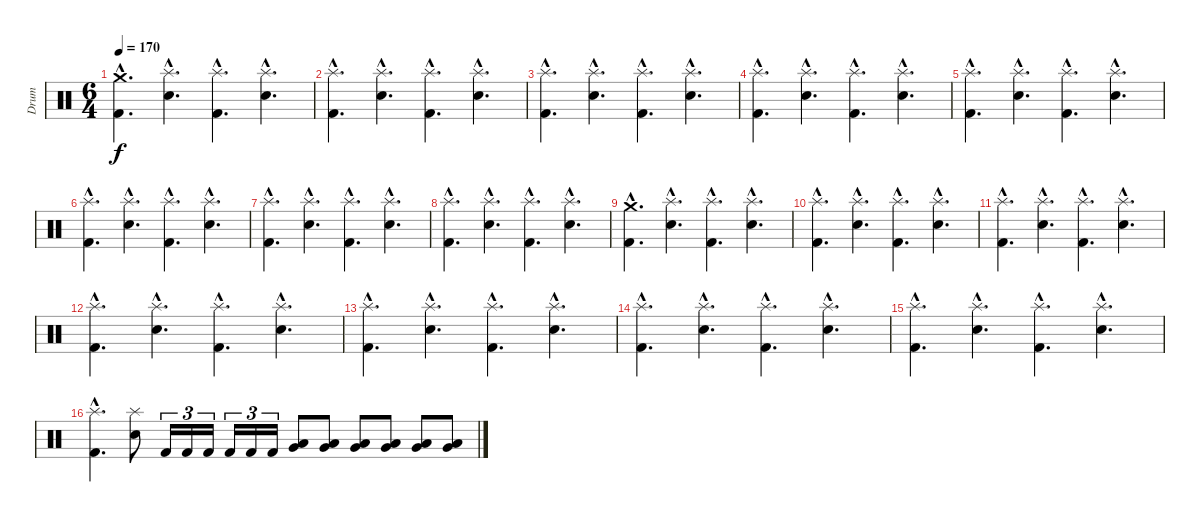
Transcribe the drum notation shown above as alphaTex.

\track ("Drum" "Drum") {instrument percussion}
\staff {score}
\articulation defaults
\ts (6 4)
\tempo 170
\clef neutral
\ks c
("Crash medium (hit)"{hac} "Kick (hit) 2"{hac}).4{d dy f} ("Splash (hit)"{hac} "Electric Snare (hit)"{hac}).4{d} ("Splash (hit)"{hac} "Kick (hit) 2"{hac}).4{d} ("Splash (hit)"{hac} "Electric Snare (hit)"{hac}).4{d} |
("Splash (hit)"{hac} "Kick (hit) 2"{hac}).4{d} ("Splash (hit)"{hac} "Electric Snare (hit)"{hac}).4{d} ("Splash (hit)"{hac} "Kick (hit) 2"{hac}).4{d} ("Splash (hit)"{hac} "Electric Snare (hit)"{hac}).4{d} |
("Splash (hit)"{hac} "Kick (hit) 2"{hac}).4{d} ("Splash (hit)"{hac} "Electric Snare (hit)"{hac}).4{d} ("Splash (hit)"{hac} "Kick (hit) 2"{hac}).4{d} ("Splash (hit)"{hac} "Electric Snare (hit)"{hac}).4{d} |
("Splash (hit)"{hac} "Kick (hit) 2"{hac}).4{d} ("Splash (hit)"{hac} "Electric Snare (hit)"{hac}).4{d} ("Splash (hit)"{hac} "Kick (hit) 2"{hac}).4{d} ("Splash (hit)"{hac} "Electric Snare (hit)"{hac}).4{d} |
("Splash (hit)"{hac} "Kick (hit) 2"{hac}).4{d} ("Splash (hit)"{hac} "Electric Snare (hit)"{hac}).4{d} ("Splash (hit)"{hac} "Kick (hit) 2"{hac}).4{d} ("Splash (hit)"{hac} "Electric Snare (hit)"{hac}).4{d} |
("Splash (hit)"{hac} "Kick (hit) 2"{hac}).4{d} ("Splash (hit)"{hac} "Electric Snare (hit)"{hac}).4{d} ("Splash (hit)"{hac} "Kick (hit) 2"{hac}).4{d} ("Splash (hit)"{hac} "Electric Snare (hit)"{hac}).4{d} |
("Splash (hit)"{hac} "Kick (hit) 2"{hac}).4{d} ("Splash (hit)"{hac} "Electric Snare (hit)"{hac}).4{d} ("Splash (hit)"{hac} "Kick (hit) 2"{hac}).4{d} ("Splash (hit)"{hac} "Electric Snare (hit)"{hac}).4{d} |
("Splash (hit)"{hac} "Kick (hit) 2"{hac}).4{d} ("Splash (hit)"{hac} "Electric Snare (hit)"{hac}).4{d} ("Splash (hit)"{hac} "Kick (hit) 2"{hac}).4{d} ("Splash (hit)"{hac} "Electric Snare (hit)"{hac}).4{d} |
("Crash medium (hit)"{hac} "Kick (hit) 2"{hac}).4{d} ("Splash (hit)"{hac} "Electric Snare (hit)"{hac}).4{d} ("Splash (hit)"{hac} "Kick (hit) 2"{hac}).4{d} ("Splash (hit)"{hac} "Electric Snare (hit)"{hac}).4{d} |
("Splash (hit)"{hac} "Kick (hit) 2"{hac}).4{d} ("Splash (hit)"{hac} "Electric Snare (hit)"{hac}).4{d} ("Splash (hit)"{hac} "Kick (hit) 2"{hac}).4{d} ("Splash (hit)"{hac} "Electric Snare (hit)"{hac}).4{d} |
("Splash (hit)"{hac} "Kick (hit) 2"{hac}).4{d} ("Splash (hit)"{hac} "Electric Snare (hit)"{hac}).4{d} ("Splash (hit)"{hac} "Kick (hit) 2"{hac}).4{d} ("Splash (hit)"{hac} "Electric Snare (hit)"{hac}).4{d} |
("Splash (hit)"{hac} "Kick (hit) 2"{hac}).4{d} ("Splash (hit)"{hac} "Electric Snare (hit)"{hac}).4{d} ("Splash (hit)"{hac} "Kick (hit) 2"{hac}).4{d} ("Splash (hit)"{hac} "Electric Snare (hit)"{hac}).4{d} |
("Splash (hit)"{hac} "Kick (hit) 2"{hac}).4{d} ("Splash (hit)"{hac} "Electric Snare (hit)"{hac}).4{d} ("Splash (hit)"{hac} "Kick (hit) 2"{hac}).4{d} ("Splash (hit)"{hac} "Electric Snare (hit)"{hac}).4{d} |
("Splash (hit)"{hac} "Kick (hit) 2"{hac}).4{d} ("Splash (hit)"{hac} "Electric Snare (hit)"{hac}).4{d} ("Splash (hit)"{hac} "Kick (hit) 2"{hac}).4{d} ("Splash (hit)"{hac} "Electric Snare (hit)"{hac}).4{d} |
("Splash (hit)"{hac} "Kick (hit) 2"{hac}).4{d} ("Splash (hit)"{hac} "Electric Snare (hit)"{hac}).4{d} ("Splash (hit)"{hac} "Kick (hit) 2"{hac}).4{d} ("Splash (hit)"{hac} "Electric Snare (hit)"{hac}).4{d} |
("Splash (hit)"{hac} "Kick (hit) 2"{hac}).4{d} ("Splash (hit)" "Electric Snare (hit)").8 "Kick (hit) 2".16{tu (3 2)} "Kick (hit) 2".16{tu (3 2)} "Kick (hit) 2".16{tu (3 2)} "Kick (hit) 2".16{tu (3 2)} "Kick (hit) 2".16{tu (3 2)} "Kick (hit) 2".16{tu (3 2)} ("Low Tom (hit)" "Very Low Tom (hit)").8 ("Low Tom (hit)" "Very Low Tom (hit)").8 ("Low Tom (hit)" "Very Low Tom (hit)").8 ("Very Low Tom (hit)" "Low Floor Tom (hit)").8 ("Very Low Tom (hit)" "Low Floor Tom (hit)").8 ("Very Low Tom (hit)" "Low Floor Tom (hit)").8
